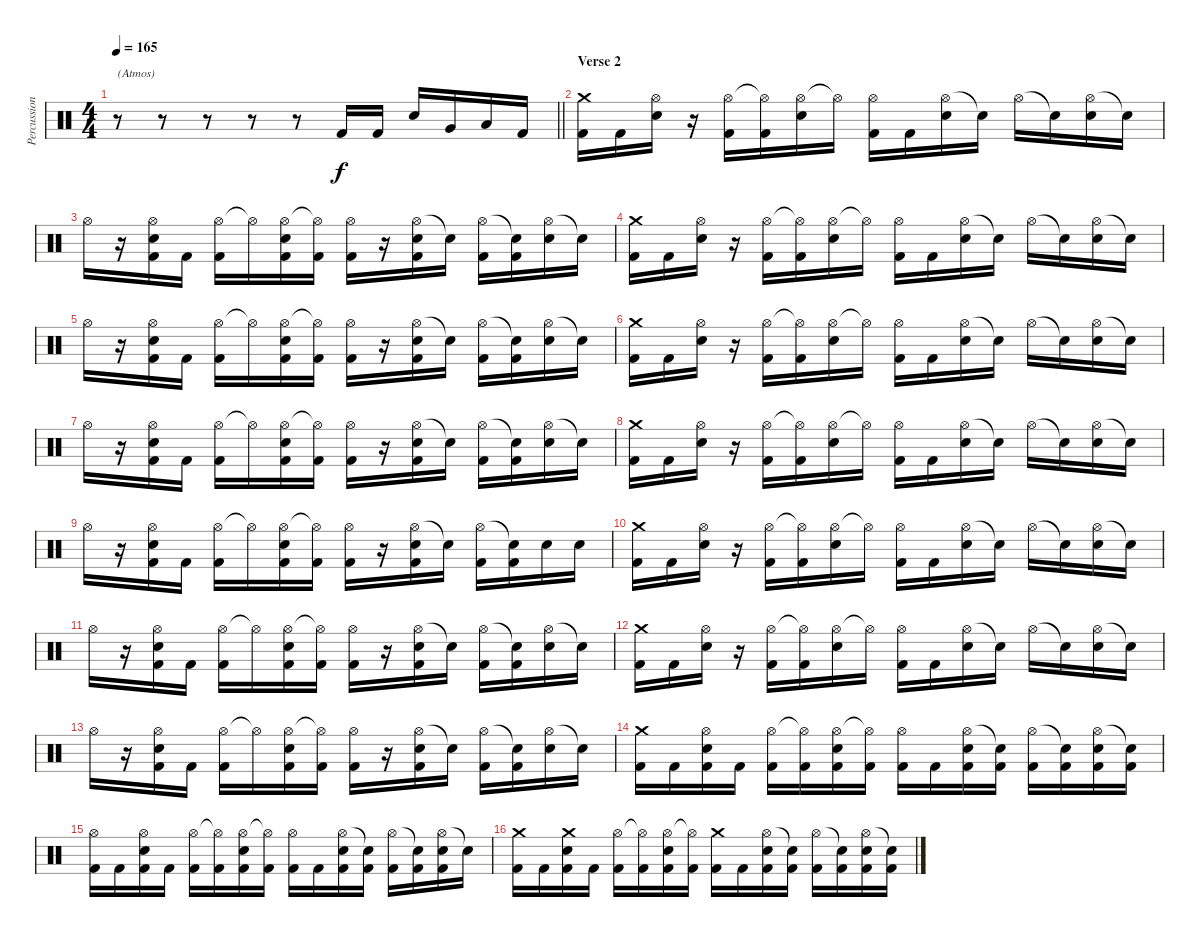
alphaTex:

\track ("Percussion" "Percussion") {instrument percussion}
\staff {score}
\articulation defaults
\ts (4 4)
\tempo 165
\clef neutral
\barLineRight lightlight
\ks c
r.8{txt "(Atmos)" dy f} r.8 r.8 r.8 r.8 "Kick (hit) 2".16 "Kick (hit) 2".16 "Electric Snare (hit)".16 "Very Low Tom (hit)".16 "Low Floor Tom (hit)".16 "Kick (hit) 2".16 |
\section ("" "Verse 2")
("Crash medium (hit)" "Kick (hit) 2").16 "Kick (hit) 2".16 ("Hi-Hat (open)" "Electric Snare (hit)").16 r.16 ("Hi-Hat (open)" "Kick (hit) 2").16 ("Hi-Hat (open)"{t} "Kick (hit) 2").16 ("Hi-Hat (open)" "Electric Snare (hit)").16 "Hi-Hat (open)"{t}.16 ("Hi-Hat (open)" "Kick (hit) 2").16 "Kick (hit) 2".16 ("Hi-Hat (open)" "Electric Snare (hit)").16 "Snare (hit)"{t}.16 "Hi-Hat (open)".16 "Snare (hit)"{t}.16 ("Hi-Hat (open)" "Electric Snare (hit)").16 "Snare (hit)"{t}.16 |
"Hi-Hat (open)".16 r.16 ("Hi-Hat (open)" "Electric Snare (hit)" "Kick (hit) 2").16 "Kick (hit) 2".16 ("Hi-Hat (open)" "Kick (hit) 2").16 "Hi-Hat (open)"{t}.16 ("Hi-Hat (open)" "Electric Snare (hit)" "Kick (hit) 2").16 ("Hi-Hat (open)"{t} "Kick (hit) 2").16 ("Hi-Hat (open)" "Kick (hit) 2").16 r.16 ("Hi-Hat (open)" "Electric Snare (hit)" "Kick (hit) 2").16 "Snare (hit)"{t}.16 ("Hi-Hat (open)" "Kick (hit) 2").16 ("Snare (hit)"{t} "Kick (hit) 2").16 ("Hi-Hat (open)" "Electric Snare (hit)").16 "Snare (hit)"{t}.16 |
("Crash medium (hit)" "Kick (hit) 2").16 "Kick (hit) 2".16 ("Hi-Hat (open)" "Electric Snare (hit)").16 r.16 ("Hi-Hat (open)" "Kick (hit) 2").16 ("Hi-Hat (open)"{t} "Kick (hit) 2").16 ("Hi-Hat (open)" "Electric Snare (hit)").16 "Hi-Hat (open)"{t}.16 ("Hi-Hat (open)" "Kick (hit) 2").16 "Kick (hit) 2".16 ("Hi-Hat (open)" "Electric Snare (hit)").16 "Snare (hit)"{t}.16 "Hi-Hat (open)".16 "Snare (hit)"{t}.16 ("Hi-Hat (open)" "Electric Snare (hit)").16 "Snare (hit)"{t}.16 |
"Hi-Hat (open)".16 r.16 ("Hi-Hat (open)" "Electric Snare (hit)" "Kick (hit) 2").16 "Kick (hit) 2".16 ("Hi-Hat (open)" "Kick (hit) 2").16 "Hi-Hat (open)"{t}.16 ("Hi-Hat (open)" "Electric Snare (hit)" "Kick (hit) 2").16 ("Hi-Hat (open)"{t} "Kick (hit) 2").16 ("Hi-Hat (open)" "Kick (hit) 2").16 r.16 ("Hi-Hat (open)" "Electric Snare (hit)" "Kick (hit) 2").16 "Snare (hit)"{t}.16 ("Hi-Hat (open)" "Kick (hit) 2").16 ("Snare (hit)"{t} "Kick (hit) 2").16 ("Hi-Hat (open)" "Electric Snare (hit)").16 "Snare (hit)"{t}.16 |
("Crash medium (hit)" "Kick (hit) 2").16 "Kick (hit) 2".16 ("Hi-Hat (open)" "Electric Snare (hit)").16 r.16 ("Hi-Hat (open)" "Kick (hit) 2").16 ("Hi-Hat (open)"{t} "Kick (hit) 2").16 ("Hi-Hat (open)" "Electric Snare (hit)").16 "Hi-Hat (open)"{t}.16 ("Hi-Hat (open)" "Kick (hit) 2").16 "Kick (hit) 2".16 ("Hi-Hat (open)" "Electric Snare (hit)").16 "Snare (hit)"{t}.16 "Hi-Hat (open)".16 "Snare (hit)"{t}.16 ("Hi-Hat (open)" "Electric Snare (hit)").16 "Snare (hit)"{t}.16 |
"Hi-Hat (open)".16 r.16 ("Hi-Hat (open)" "Electric Snare (hit)" "Kick (hit) 2").16 "Kick (hit) 2".16 ("Hi-Hat (open)" "Kick (hit) 2").16 "Hi-Hat (open)"{t}.16 ("Hi-Hat (open)" "Electric Snare (hit)" "Kick (hit) 2").16 ("Hi-Hat (open)"{t} "Kick (hit) 2").16 ("Hi-Hat (open)" "Kick (hit) 2").16 r.16 ("Hi-Hat (open)" "Electric Snare (hit)" "Kick (hit) 2").16 "Snare (hit)"{t}.16 ("Hi-Hat (open)" "Kick (hit) 2").16 ("Snare (hit)"{t} "Kick (hit) 2").16 ("Hi-Hat (open)" "Electric Snare (hit)").16 "Snare (hit)"{t}.16 |
("Crash medium (hit)" "Kick (hit) 2").16 "Kick (hit) 2".16 ("Hi-Hat (open)" "Electric Snare (hit)").16 r.16 ("Hi-Hat (open)" "Kick (hit) 2").16 ("Hi-Hat (open)"{t} "Kick (hit) 2").16 ("Hi-Hat (open)" "Electric Snare (hit)").16 "Hi-Hat (open)"{t}.16 ("Hi-Hat (open)" "Kick (hit) 2").16 "Kick (hit) 2".16 ("Hi-Hat (open)" "Electric Snare (hit)").16 "Snare (hit)"{t}.16 "Hi-Hat (open)".16 "Snare (hit)"{t}.16 ("Hi-Hat (open)" "Electric Snare (hit)").16 "Snare (hit)"{t}.16 |
"Hi-Hat (open)".16 r.16 ("Hi-Hat (open)" "Electric Snare (hit)" "Kick (hit) 2").16 "Kick (hit) 2".16 ("Hi-Hat (open)" "Kick (hit) 2").16 "Hi-Hat (open)"{t}.16 ("Hi-Hat (open)" "Electric Snare (hit)" "Kick (hit) 2").16 ("Hi-Hat (open)"{t} "Kick (hit) 2").16 ("Hi-Hat (open)" "Kick (hit) 2").16 r.16 ("Hi-Hat (open)" "Electric Snare (hit)" "Kick (hit) 2").16 "Snare (hit)"{t}.16 ("Hi-Hat (open)" "Kick (hit) 2").16 ("Snare (hit)"{t} "Kick (hit) 2").16 "Electric Snare (hit)".16 "Electric Snare (hit)".16 |
("Crash medium (hit)" "Kick (hit) 2").16 "Kick (hit) 2".16 ("Hi-Hat (open)" "Electric Snare (hit)").16 r.16 ("Hi-Hat (open)" "Kick (hit) 2").16 ("Hi-Hat (open)"{t} "Kick (hit) 2").16 ("Hi-Hat (open)" "Electric Snare (hit)").16 "Hi-Hat (open)"{t}.16 ("Hi-Hat (open)" "Kick (hit) 2").16 "Kick (hit) 2".16 ("Hi-Hat (open)" "Electric Snare (hit)").16 "Snare (hit)"{t}.16 "Hi-Hat (open)".16 "Snare (hit)"{t}.16 ("Hi-Hat (open)" "Electric Snare (hit)").16 "Snare (hit)"{t}.16 |
"Hi-Hat (open)".16 r.16 ("Hi-Hat (open)" "Electric Snare (hit)" "Kick (hit) 2").16 "Kick (hit) 2".16 ("Hi-Hat (open)" "Kick (hit) 2").16 "Hi-Hat (open)"{t}.16 ("Hi-Hat (open)" "Electric Snare (hit)" "Kick (hit) 2").16 ("Hi-Hat (open)"{t} "Kick (hit) 2").16 ("Hi-Hat (open)" "Kick (hit) 2").16 r.16 ("Hi-Hat (open)" "Electric Snare (hit)" "Kick (hit) 2").16 "Snare (hit)"{t}.16 ("Hi-Hat (open)" "Kick (hit) 2").16 ("Snare (hit)"{t} "Kick (hit) 2").16 ("Hi-Hat (open)" "Electric Snare (hit)").16 "Snare (hit)"{t}.16 |
("Crash medium (hit)" "Kick (hit) 2").16 "Kick (hit) 2".16 ("Hi-Hat (open)" "Electric Snare (hit)").16 r.16 ("Hi-Hat (open)" "Kick (hit) 2").16 ("Hi-Hat (open)"{t} "Kick (hit) 2").16 ("Hi-Hat (open)" "Electric Snare (hit)").16 "Hi-Hat (open)"{t}.16 ("Hi-Hat (open)" "Kick (hit) 2").16 "Kick (hit) 2".16 ("Hi-Hat (open)" "Electric Snare (hit)").16 "Snare (hit)"{t}.16 "Hi-Hat (open)".16 "Snare (hit)"{t}.16 ("Hi-Hat (open)" "Electric Snare (hit)").16 "Snare (hit)"{t}.16 |
"Hi-Hat (open)".16 r.16 ("Hi-Hat (open)" "Electric Snare (hit)" "Kick (hit) 2").16 "Kick (hit) 2".16 ("Hi-Hat (open)" "Kick (hit) 2").16 "Hi-Hat (open)"{t}.16 ("Hi-Hat (open)" "Electric Snare (hit)" "Kick (hit) 2").16 ("Hi-Hat (open)"{t} "Kick (hit) 2").16 ("Hi-Hat (open)" "Kick (hit) 2").16 r.16 ("Hi-Hat (open)" "Electric Snare (hit)" "Kick (hit) 2").16 "Snare (hit)"{t}.16 ("Hi-Hat (open)" "Kick (hit) 2").16 ("Snare (hit)"{t} "Kick (hit) 2").16 ("Hi-Hat (open)" "Electric Snare (hit)").16 "Snare (hit)"{t}.16 |
("Crash medium (hit)" "Kick (hit) 2").16 "Kick (hit) 2".16 ("Hi-Hat (open)" "Electric Snare (hit)" "Kick (hit) 2").16 "Kick (hit) 2".16 ("Hi-Hat (open)" "Kick (hit) 2").16 ("Hi-Hat (open)"{t} "Kick (hit) 2").16 ("Hi-Hat (open)" "Electric Snare (hit)" "Kick (hit) 2").16 ("Hi-Hat (open)"{t} "Kick (hit) 2").16 ("Hi-Hat (open)" "Kick (hit) 2").16 "Kick (hit) 2".16 ("Hi-Hat (open)" "Electric Snare (hit)" "Kick (hit) 2").16 ("Snare (hit)"{t} "Kick (hit) 2").16 ("Hi-Hat (open)" "Kick (hit) 2").16 ("Snare (hit)"{t} "Kick (hit) 2").16 ("Hi-Hat (open)" "Electric Snare (hit)" "Kick (hit) 2").16 ("Snare (hit)"{t} "Kick (hit) 2").16 |
("Hi-Hat (open)" "Kick (hit) 2").16 "Kick (hit) 2".16 ("Hi-Hat (open)" "Electric Snare (hit)" "Kick (hit) 2").16 "Kick (hit) 2".16 ("Hi-Hat (open)" "Kick (hit) 2").16 ("Hi-Hat (open)"{t} "Kick (hit) 2").16 ("Hi-Hat (open)" "Electric Snare (hit)" "Kick (hit) 2").16 ("Hi-Hat (open)"{t} "Kick (hit) 2").16 ("Hi-Hat (open)" "Kick (hit) 2").16 "Kick (hit) 2".16 ("Hi-Hat (open)" "Electric Snare (hit)" "Kick (hit) 2").16 ("Snare (hit)"{t} "Kick (hit) 2").16 ("Hi-Hat (open)" "Kick (hit) 2").16 ("Snare (hit)"{t} "Kick (hit) 2").16 ("Hi-Hat (open)" "Electric Snare (hit)" "Kick (hit) 2").16 "Snare (hit)"{t}.16 |
("Crash medium (hit)" "Kick (hit) 2").16 "Kick (hit) 2".16 ("Crash medium (hit)" "Electric Snare (hit)" "Kick (hit) 2").16 "Kick (hit) 2".16 ("Hi-Hat (open)" "Kick (hit) 2").16 ("Hi-Hat (open)"{t} "Kick (hit) 2").16 ("Hi-Hat (open)" "Electric Snare (hit)" "Kick (hit) 2").16 ("Hi-Hat (open)"{t} "Kick (hit) 2").16 ("Crash medium (hit)" "Kick (hit) 2").16 "Kick (hit) 2".16 ("Hi-Hat (open)" "Electric Snare (hit)" "Kick (hit) 2").16 ("Snare (hit)"{t} "Kick (hit) 2").16 ("Hi-Hat (open)" "Kick (hit) 2").16 ("Snare (hit)"{t} "Kick (hit) 2").16 ("Hi-Hat (open)" "Electric Snare (hit)" "Kick (hit) 2").16 ("Snare (hit)"{t} "Kick (hit) 2").16
